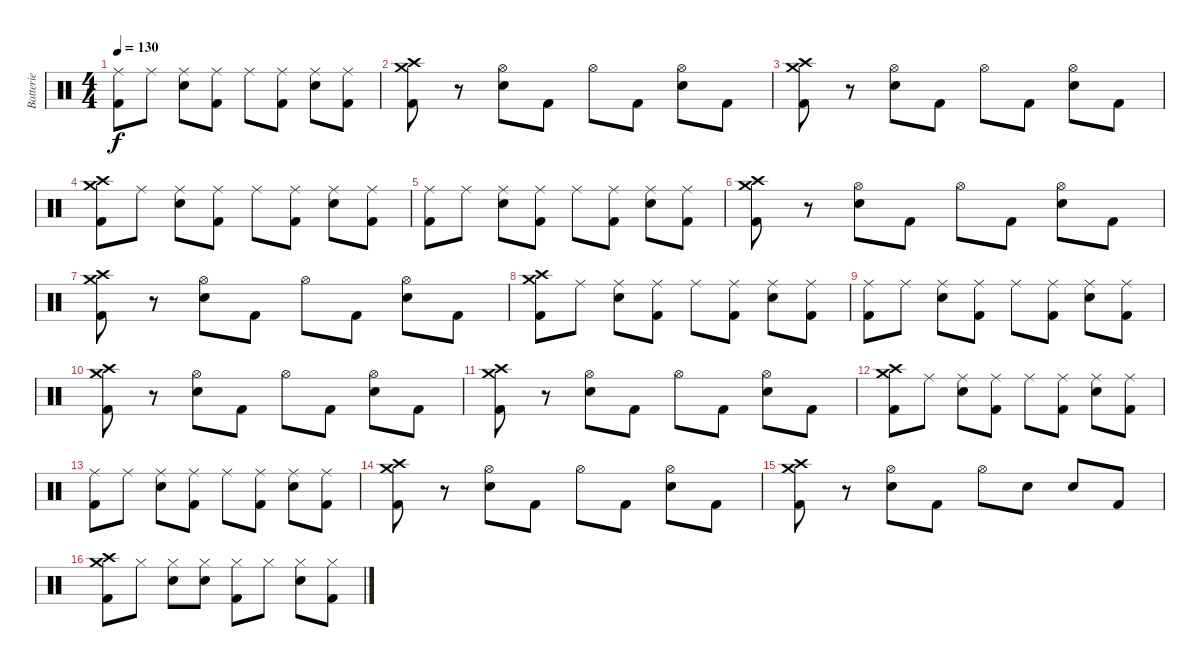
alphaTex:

\track ("Batterie" "Batterie") {instrument percussion}
\staff {score}
\articulation defaults
\ts (4 4)
\tempo 130
\clef neutral
\ks c
("Ride (middle)" "Kick (hit) 2").8{dy f} "Ride (middle)".8 ("Ride (middle)" "Snare (hit) 2").8 ("Ride (middle)" "Kick (hit) 2").8 "Ride (middle)".8 ("Ride (middle)" "Kick (hit) 2").8 ("Ride (middle)" "Snare (hit) 2").8 ("Ride (middle)" "Kick (hit) 2").8 |
("Crash high (hit)" "Crash medium (hit)" "Kick (hit) 2").8 r.8 ("Hi-Hat (open)" "Snare (hit) 2").8 "Kick (hit) 2".8 "Hi-Hat (open)".8 "Kick (hit) 2".8 ("Hi-Hat (open)" "Snare (hit) 2").8 "Kick (hit) 2".8 |
("Crash high (hit)" "Crash medium (hit)" "Kick (hit) 2").8 r.8 ("Hi-Hat (open)" "Snare (hit) 2").8 "Kick (hit) 2".8 "Hi-Hat (open)".8 "Kick (hit) 2".8 ("Hi-Hat (open)" "Snare (hit) 2").8 "Kick (hit) 2".8 |
("Crash high (hit)" "Crash medium (hit)" "Kick (hit) 2").8 "Ride (middle)".8 ("Ride (middle)" "Snare (hit) 2").8 ("Ride (middle)" "Kick (hit) 2").8 "Ride (middle)".8 ("Ride (middle)" "Kick (hit) 2").8 ("Ride (middle)" "Snare (hit) 2").8 ("Ride (middle)" "Kick (hit) 2").8 |
("Ride (middle)" "Kick (hit) 2").8 "Ride (middle)".8 ("Ride (middle)" "Snare (hit) 2").8 ("Ride (middle)" "Kick (hit) 2").8 "Ride (middle)".8 ("Ride (middle)" "Kick (hit) 2").8 ("Ride (middle)" "Snare (hit) 2").8 ("Ride (middle)" "Kick (hit) 2").8 |
("Crash high (hit)" "Crash medium (hit)" "Kick (hit) 2").8 r.8 ("Hi-Hat (open)" "Snare (hit) 2").8 "Kick (hit) 2".8 "Hi-Hat (open)".8 "Kick (hit) 2".8 ("Hi-Hat (open)" "Snare (hit) 2").8 "Kick (hit) 2".8 |
("Crash high (hit)" "Crash medium (hit)" "Kick (hit) 2").8 r.8 ("Hi-Hat (open)" "Snare (hit) 2").8 "Kick (hit) 2".8 "Hi-Hat (open)".8 "Kick (hit) 2".8 ("Hi-Hat (open)" "Snare (hit) 2").8 "Kick (hit) 2".8 |
("Crash high (hit)" "Crash medium (hit)" "Kick (hit) 2").8 "Ride (middle)".8 ("Ride (middle)" "Snare (hit) 2").8 ("Ride (middle)" "Kick (hit) 2").8 "Ride (middle)".8 ("Ride (middle)" "Kick (hit) 2").8 ("Ride (middle)" "Snare (hit) 2").8 ("Ride (middle)" "Kick (hit) 2").8 |
("Ride (middle)" "Kick (hit) 2").8 "Ride (middle)".8 ("Ride (middle)" "Snare (hit) 2").8 ("Ride (middle)" "Kick (hit) 2").8 "Ride (middle)".8 ("Ride (middle)" "Kick (hit) 2").8 ("Ride (middle)" "Snare (hit) 2").8 ("Ride (middle)" "Kick (hit) 2").8 |
("Crash high (hit)" "Crash medium (hit)" "Kick (hit) 2").8 r.8 ("Hi-Hat (open)" "Snare (hit) 2").8 "Kick (hit) 2".8 "Hi-Hat (open)".8 "Kick (hit) 2".8 ("Hi-Hat (open)" "Snare (hit) 2").8 "Kick (hit) 2".8 |
("Crash high (hit)" "Crash medium (hit)" "Kick (hit) 2").8 r.8 ("Hi-Hat (open)" "Snare (hit) 2").8 "Kick (hit) 2".8 "Hi-Hat (open)".8 "Kick (hit) 2".8 ("Hi-Hat (open)" "Snare (hit) 2").8 "Kick (hit) 2".8 |
("Crash high (hit)" "Crash medium (hit)" "Kick (hit) 2").8 "Ride (middle)".8 ("Ride (middle)" "Snare (hit) 2").8 ("Ride (middle)" "Kick (hit) 2").8 "Ride (middle)".8 ("Ride (middle)" "Kick (hit) 2").8 ("Ride (middle)" "Snare (hit) 2").8 ("Ride (middle)" "Kick (hit) 2").8 |
("Ride (middle)" "Kick (hit) 2").8 "Ride (middle)".8 ("Ride (middle)" "Snare (hit) 2").8 ("Ride (middle)" "Kick (hit) 2").8 "Ride (middle)".8 ("Ride (middle)" "Kick (hit) 2").8 ("Ride (middle)" "Snare (hit) 2").8 ("Ride (middle)" "Kick (hit) 2").8 |
("Crash high (hit)" "Crash medium (hit)" "Kick (hit) 2").8 r.8 ("Hi-Hat (open)" "Snare (hit) 2").8 "Kick (hit) 2".8 "Hi-Hat (open)".8 "Kick (hit) 2".8 ("Hi-Hat (open)" "Snare (hit) 2").8 "Kick (hit) 2".8 |
("Crash high (hit)" "Crash medium (hit)" "Kick (hit) 2").8 r.8 ("Hi-Hat (open)" "Snare (hit) 2").8 "Kick (hit) 2".8 "Hi-Hat (open)".8 "Snare (hit) 2".8 "Snare (hit) 2".8 "Kick (hit) 2".8 |
("Crash high (hit)" "Crash medium (hit)" "Kick (hit) 2").8 "Hi-Hat (closed)".8 ("Hi-Hat (closed)" "Snare (hit) 2").8 ("Hi-Hat (closed)" "Snare (hit) 2").8 ("Hi-Hat (closed)" "Kick (hit) 2").8 "Hi-Hat (closed)".8 ("Hi-Hat (closed)" "Snare (hit) 2").8 ("Hi-Hat (closed)" "Kick (hit) 2").8
